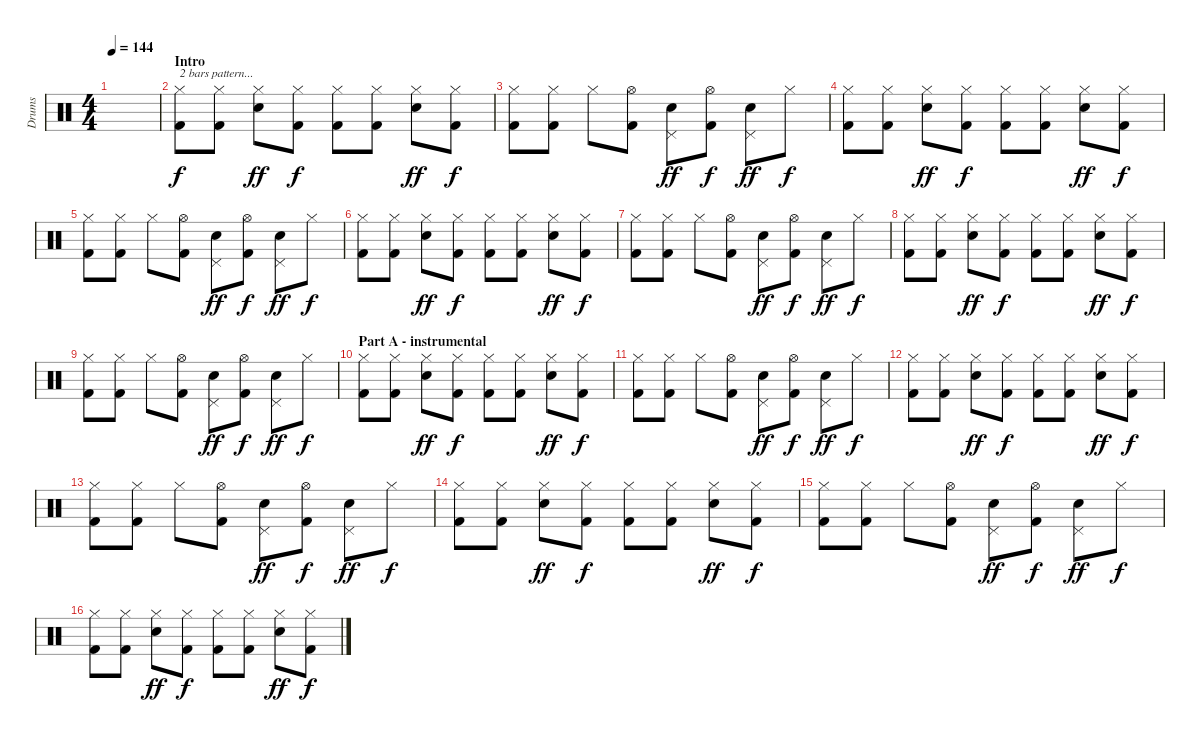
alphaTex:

\track ("Drums" "Drums") {instrument percussion}
\staff {score}
\articulation defaults
\ts (4 4)
\tempo 144
\clef neutral
\ks c
|
\section ("" "Intro")
("Hi-Hat (closed)" "Kick (hit) 2").8{txt "2 bars pattern..."} ("Hi-Hat (closed)" "Kick (hit) 2").8 ("Hi-Hat (closed)" "Electric Snare (hit)").8{dy ff} ("Hi-Hat (closed)" "Kick (hit) 2").8{dy f} ("Hi-Hat (closed)" "Kick (hit) 2").8 ("Hi-Hat (closed)" "Kick (hit) 2").8 ("Hi-Hat (closed)" "Electric Snare (hit)").8{dy ff} ("Hi-Hat (closed)" "Kick (hit) 2").8{dy f} |
("Hi-Hat (closed)" "Kick (hit) 2").8 ("Hi-Hat (closed)" "Kick (hit) 2").8 "Hi-Hat (closed)".8 ("Hi-Hat (open)" "Kick (hit) 2").8 ("Pedal Hi-Hat (hit)" "Electric Snare (hit)").8{dy ff} ("Hi-Hat (open)" "Kick (hit) 2").8{dy f} ("Pedal Hi-Hat (hit)" "Electric Snare (hit)").8{dy ff} "Hi-Hat (closed)".8{dy f} |
("Hi-Hat (closed)" "Kick (hit) 2").8 ("Hi-Hat (closed)" "Kick (hit) 2").8 ("Hi-Hat (closed)" "Electric Snare (hit)").8{dy ff} ("Hi-Hat (closed)" "Kick (hit) 2").8{dy f} ("Hi-Hat (closed)" "Kick (hit) 2").8 ("Hi-Hat (closed)" "Kick (hit) 2").8 ("Hi-Hat (closed)" "Electric Snare (hit)").8{dy ff} ("Hi-Hat (closed)" "Kick (hit) 2").8{dy f} |
("Hi-Hat (closed)" "Kick (hit) 2").8 ("Hi-Hat (closed)" "Kick (hit) 2").8 "Hi-Hat (closed)".8 ("Hi-Hat (open)" "Kick (hit) 2").8 ("Pedal Hi-Hat (hit)" "Electric Snare (hit)").8{dy ff} ("Hi-Hat (open)" "Kick (hit) 2").8{dy f} ("Pedal Hi-Hat (hit)" "Electric Snare (hit)").8{dy ff} "Hi-Hat (closed)".8{dy f} |
("Hi-Hat (closed)" "Kick (hit) 2").8 ("Hi-Hat (closed)" "Kick (hit) 2").8 ("Hi-Hat (closed)" "Electric Snare (hit)").8{dy ff} ("Hi-Hat (closed)" "Kick (hit) 2").8{dy f} ("Hi-Hat (closed)" "Kick (hit) 2").8 ("Hi-Hat (closed)" "Kick (hit) 2").8 ("Hi-Hat (closed)" "Electric Snare (hit)").8{dy ff} ("Hi-Hat (closed)" "Kick (hit) 2").8{dy f} |
("Hi-Hat (closed)" "Kick (hit) 2").8 ("Hi-Hat (closed)" "Kick (hit) 2").8 "Hi-Hat (closed)".8 ("Hi-Hat (open)" "Kick (hit) 2").8 ("Pedal Hi-Hat (hit)" "Electric Snare (hit)").8{dy ff} ("Hi-Hat (open)" "Kick (hit) 2").8{dy f} ("Pedal Hi-Hat (hit)" "Electric Snare (hit)").8{dy ff} "Hi-Hat (closed)".8{dy f} |
("Hi-Hat (closed)" "Kick (hit) 2").8 ("Hi-Hat (closed)" "Kick (hit) 2").8 ("Hi-Hat (closed)" "Electric Snare (hit)").8{dy ff} ("Hi-Hat (closed)" "Kick (hit) 2").8{dy f} ("Hi-Hat (closed)" "Kick (hit) 2").8 ("Hi-Hat (closed)" "Kick (hit) 2").8 ("Hi-Hat (closed)" "Electric Snare (hit)").8{dy ff} ("Hi-Hat (closed)" "Kick (hit) 2").8{dy f} |
("Hi-Hat (closed)" "Kick (hit) 2").8 ("Hi-Hat (closed)" "Kick (hit) 2").8 "Hi-Hat (closed)".8 ("Hi-Hat (open)" "Kick (hit) 2").8 ("Pedal Hi-Hat (hit)" "Electric Snare (hit)").8{dy ff} ("Hi-Hat (open)" "Kick (hit) 2").8{dy f} ("Pedal Hi-Hat (hit)" "Electric Snare (hit)").8{dy ff} "Hi-Hat (closed)".8{dy f} |
\section ("" "Part A - instrumental")
("Hi-Hat (closed)" "Kick (hit) 2").8 ("Hi-Hat (closed)" "Kick (hit) 2").8 ("Hi-Hat (closed)" "Electric Snare (hit)").8{dy ff} ("Hi-Hat (closed)" "Kick (hit) 2").8{dy f} ("Hi-Hat (closed)" "Kick (hit) 2").8 ("Hi-Hat (closed)" "Kick (hit) 2").8 ("Hi-Hat (closed)" "Electric Snare (hit)").8{dy ff} ("Hi-Hat (closed)" "Kick (hit) 2").8{dy f} |
("Hi-Hat (closed)" "Kick (hit) 2").8 ("Hi-Hat (closed)" "Kick (hit) 2").8 "Hi-Hat (closed)".8 ("Hi-Hat (open)" "Kick (hit) 2").8 ("Pedal Hi-Hat (hit)" "Electric Snare (hit)").8{dy ff} ("Hi-Hat (open)" "Kick (hit) 2").8{dy f} ("Pedal Hi-Hat (hit)" "Electric Snare (hit)").8{dy ff} "Hi-Hat (closed)".8{dy f} |
("Hi-Hat (closed)" "Kick (hit) 2").8 ("Hi-Hat (closed)" "Kick (hit) 2").8 ("Hi-Hat (closed)" "Electric Snare (hit)").8{dy ff} ("Hi-Hat (closed)" "Kick (hit) 2").8{dy f} ("Hi-Hat (closed)" "Kick (hit) 2").8 ("Hi-Hat (closed)" "Kick (hit) 2").8 ("Hi-Hat (closed)" "Electric Snare (hit)").8{dy ff} ("Hi-Hat (closed)" "Kick (hit) 2").8{dy f} |
("Hi-Hat (closed)" "Kick (hit) 2").8 ("Hi-Hat (closed)" "Kick (hit) 2").8 "Hi-Hat (closed)".8 ("Hi-Hat (open)" "Kick (hit) 2").8 ("Pedal Hi-Hat (hit)" "Electric Snare (hit)").8{dy ff} ("Hi-Hat (open)" "Kick (hit) 2").8{dy f} ("Pedal Hi-Hat (hit)" "Electric Snare (hit)").8{dy ff} "Hi-Hat (closed)".8{dy f} |
("Hi-Hat (closed)" "Kick (hit) 2").8 ("Hi-Hat (closed)" "Kick (hit) 2").8 ("Hi-Hat (closed)" "Electric Snare (hit)").8{dy ff} ("Hi-Hat (closed)" "Kick (hit) 2").8{dy f} ("Hi-Hat (closed)" "Kick (hit) 2").8 ("Hi-Hat (closed)" "Kick (hit) 2").8 ("Hi-Hat (closed)" "Electric Snare (hit)").8{dy ff} ("Hi-Hat (closed)" "Kick (hit) 2").8{dy f} |
("Hi-Hat (closed)" "Kick (hit) 2").8 ("Hi-Hat (closed)" "Kick (hit) 2").8 "Hi-Hat (closed)".8 ("Hi-Hat (open)" "Kick (hit) 2").8 ("Pedal Hi-Hat (hit)" "Electric Snare (hit)").8{dy ff} ("Hi-Hat (open)" "Kick (hit) 2").8{dy f} ("Pedal Hi-Hat (hit)" "Electric Snare (hit)").8{dy ff} "Hi-Hat (closed)".8{dy f} |
("Hi-Hat (closed)" "Kick (hit) 2").8 ("Hi-Hat (closed)" "Kick (hit) 2").8 ("Hi-Hat (closed)" "Electric Snare (hit)").8{dy ff} ("Hi-Hat (closed)" "Kick (hit) 2").8{dy f} ("Hi-Hat (closed)" "Kick (hit) 2").8 ("Hi-Hat (closed)" "Kick (hit) 2").8 ("Hi-Hat (closed)" "Electric Snare (hit)").8{dy ff} ("Hi-Hat (closed)" "Kick (hit) 2").8{dy f}
